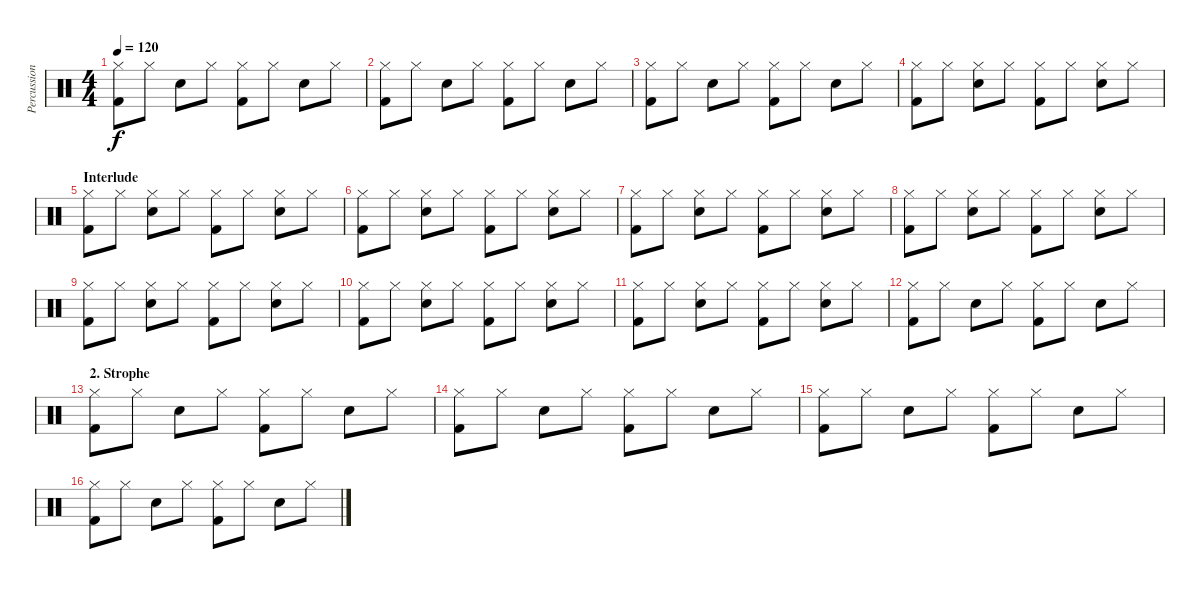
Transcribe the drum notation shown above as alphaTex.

\track ("Percussion (Bela)" "Percussion") {instrument percussion}
\staff {score}
\articulation defaults
\ts (4 4)
\tempo 120
\clef neutral
\ks c
("Hi-Hat (closed)" "Kick (hit) 2").8{dy f} "Hi-Hat (closed)".8 "Electric Snare (hit)".8 "Hi-Hat (closed)".8 ("Hi-Hat (closed)" "Kick (hit) 2").8 "Hi-Hat (closed)".8 "Electric Snare (hit)".8 "Hi-Hat (closed)".8 |
("Hi-Hat (closed)" "Kick (hit) 2").8 "Hi-Hat (closed)".8 "Electric Snare (hit)".8 "Hi-Hat (closed)".8 ("Hi-Hat (closed)" "Kick (hit) 2").8 "Hi-Hat (closed)".8 "Electric Snare (hit)".8 "Hi-Hat (closed)".8 |
("Hi-Hat (closed)" "Kick (hit) 2").8 "Hi-Hat (closed)".8 "Electric Snare (hit)".8 "Hi-Hat (closed)".8 ("Hi-Hat (closed)" "Kick (hit) 2").8 "Hi-Hat (closed)".8 "Electric Snare (hit)".8 "Hi-Hat (closed)".8 |
("Hi-Hat (closed)" "Kick (hit) 2").8 "Hi-Hat (closed)".8 ("Hi-Hat (closed)" "Electric Snare (hit)").8 "Hi-Hat (closed)".8 ("Hi-Hat (closed)" "Kick (hit) 2").8 "Hi-Hat (closed)".8 ("Hi-Hat (closed)" "Electric Snare (hit)").8 "Hi-Hat (closed)".8 |
\section ("" "Interlude")
("Hi-Hat (closed)" "Kick (hit) 2").8 "Hi-Hat (closed)".8 ("Hi-Hat (closed)" "Electric Snare (hit)").8 "Hi-Hat (closed)".8 ("Hi-Hat (closed)" "Kick (hit) 2").8 "Hi-Hat (closed)".8 ("Hi-Hat (closed)" "Electric Snare (hit)").8 "Hi-Hat (closed)".8 |
("Hi-Hat (closed)" "Kick (hit) 2").8 "Hi-Hat (closed)".8 ("Hi-Hat (closed)" "Electric Snare (hit)").8 "Hi-Hat (closed)".8 ("Hi-Hat (closed)" "Kick (hit) 2").8 "Hi-Hat (closed)".8 ("Hi-Hat (closed)" "Electric Snare (hit)").8 "Hi-Hat (closed)".8 |
("Hi-Hat (closed)" "Kick (hit) 2").8 "Hi-Hat (closed)".8 ("Hi-Hat (closed)" "Electric Snare (hit)").8 "Hi-Hat (closed)".8 ("Hi-Hat (closed)" "Kick (hit) 2").8 "Hi-Hat (closed)".8 ("Hi-Hat (closed)" "Electric Snare (hit)").8 "Hi-Hat (closed)".8 |
("Hi-Hat (closed)" "Kick (hit) 2").8 "Hi-Hat (closed)".8 ("Hi-Hat (closed)" "Electric Snare (hit)").8 "Hi-Hat (closed)".8 ("Hi-Hat (closed)" "Kick (hit) 2").8 "Hi-Hat (closed)".8 ("Hi-Hat (closed)" "Electric Snare (hit)").8 "Hi-Hat (closed)".8 |
("Hi-Hat (closed)" "Kick (hit) 2").8 "Hi-Hat (closed)".8 ("Hi-Hat (closed)" "Electric Snare (hit)").8 "Hi-Hat (closed)".8 ("Hi-Hat (closed)" "Kick (hit) 2").8 "Hi-Hat (closed)".8 ("Hi-Hat (closed)" "Electric Snare (hit)").8 "Hi-Hat (closed)".8 |
("Hi-Hat (closed)" "Kick (hit) 2").8 "Hi-Hat (closed)".8 ("Hi-Hat (closed)" "Electric Snare (hit)").8 "Hi-Hat (closed)".8 ("Hi-Hat (closed)" "Kick (hit) 2").8 "Hi-Hat (closed)".8 ("Hi-Hat (closed)" "Electric Snare (hit)").8 "Hi-Hat (closed)".8 |
("Hi-Hat (closed)" "Kick (hit) 2").8 "Hi-Hat (closed)".8 ("Hi-Hat (closed)" "Electric Snare (hit)").8 "Hi-Hat (closed)".8 ("Hi-Hat (closed)" "Kick (hit) 2").8 "Hi-Hat (closed)".8 ("Hi-Hat (closed)" "Electric Snare (hit)").8 "Hi-Hat (closed)".8 |
("Hi-Hat (closed)" "Kick (hit) 2").8 "Hi-Hat (closed)".8 "Electric Snare (hit)".8 "Hi-Hat (closed)".8 ("Hi-Hat (closed)" "Kick (hit) 2").8 "Hi-Hat (closed)".8 "Electric Snare (hit)".8 "Hi-Hat (closed)".8 |
\section ("" "2. Strophe")
("Hi-Hat (closed)" "Kick (hit) 2").8 "Hi-Hat (closed)".8 "Electric Snare (hit)".8 "Hi-Hat (closed)".8 ("Hi-Hat (closed)" "Kick (hit) 2").8 "Hi-Hat (closed)".8 "Electric Snare (hit)".8 "Hi-Hat (closed)".8 |
("Hi-Hat (closed)" "Kick (hit) 2").8 "Hi-Hat (closed)".8 "Electric Snare (hit)".8 "Hi-Hat (closed)".8 ("Hi-Hat (closed)" "Kick (hit) 2").8 "Hi-Hat (closed)".8 "Electric Snare (hit)".8 "Hi-Hat (closed)".8 |
("Hi-Hat (closed)" "Kick (hit) 2").8 "Hi-Hat (closed)".8 "Electric Snare (hit)".8 "Hi-Hat (closed)".8 ("Hi-Hat (closed)" "Kick (hit) 2").8 "Hi-Hat (closed)".8 "Electric Snare (hit)".8 "Hi-Hat (closed)".8 |
("Hi-Hat (closed)" "Kick (hit) 2").8 "Hi-Hat (closed)".8 "Electric Snare (hit)".8 "Hi-Hat (closed)".8 ("Hi-Hat (closed)" "Kick (hit) 2").8 "Hi-Hat (closed)".8 "Electric Snare (hit)".8 "Hi-Hat (closed)".8
